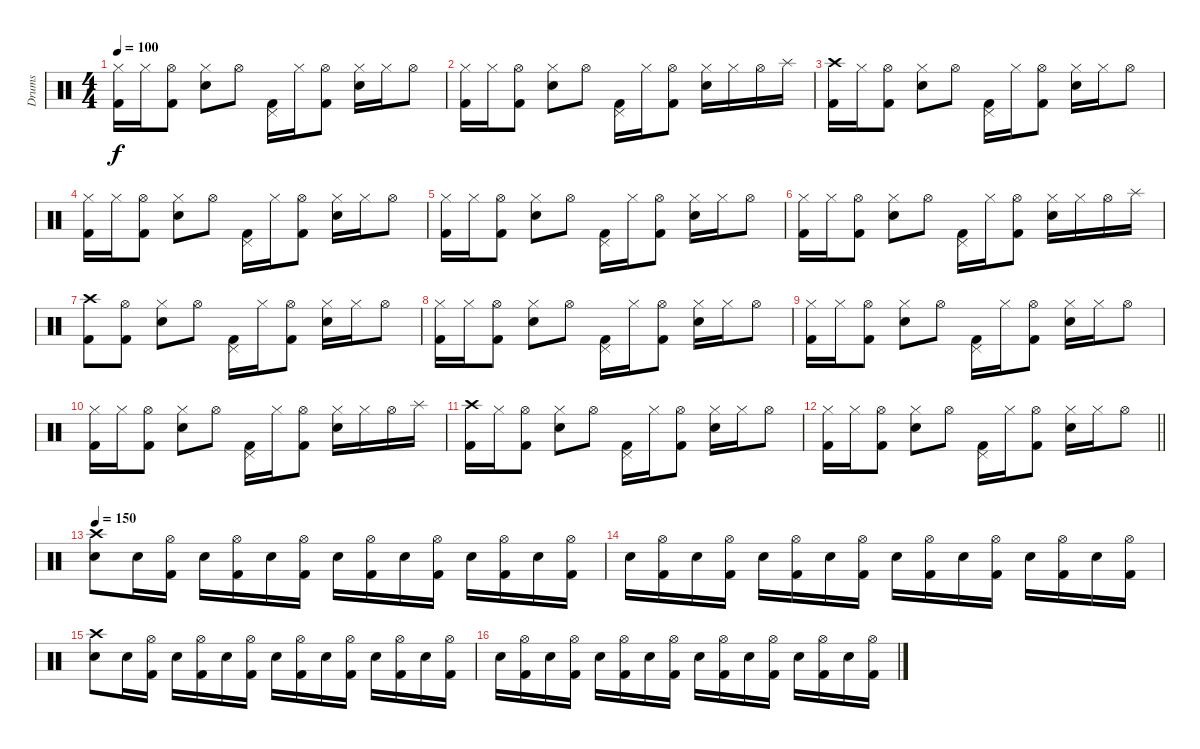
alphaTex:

\track ("Drums" "Drums") {instrument percussion}
\staff {score}
\articulation defaults
\ts (4 4)
\tempo 100
\clef neutral
\ks c
("Hi-Hat (closed)" "Kick (hit) 2").16{dy f} "Hi-Hat (closed)".16 ("Hi-Hat (open)" "Kick (hit) 2").8 ("Hi-Hat (closed)" "Electric Snare (hit)").8 "Hi-Hat (open)".8 ("Pedal Hi-Hat (hit)" "Kick (hit) 2").16 "Hi-Hat (closed)".16 ("Hi-Hat (open)" "Kick (hit) 2").8 ("Hi-Hat (closed)" "Electric Snare (hit)").16 "Hi-Hat (closed)".16 "Hi-Hat (open)".8 |
("Hi-Hat (closed)" "Kick (hit) 2").16 "Hi-Hat (closed)".16 ("Hi-Hat (open)" "Kick (hit) 2").8 ("Hi-Hat (closed)" "Electric Snare (hit)").8 "Hi-Hat (open)".8 ("Pedal Hi-Hat (hit)" "Kick (hit) 2").16 "Hi-Hat (closed)".16 ("Hi-Hat (open)" "Kick (hit) 2").8 ("Hi-Hat (closed)" "Electric Snare (hit)").16 "Hi-Hat (closed)".16 "Hi-Hat (open)".16 "Splash (hit)".16 |
("Crash high (hit)" "Kick (hit) 2").16 "Hi-Hat (closed)".16 ("Hi-Hat (open)" "Kick (hit) 2").8 ("Hi-Hat (closed)" "Electric Snare (hit)").8 "Hi-Hat (open)".8 ("Pedal Hi-Hat (hit)" "Kick (hit) 2").16 "Hi-Hat (closed)".16 ("Hi-Hat (open)" "Kick (hit) 2").8 ("Hi-Hat (closed)" "Electric Snare (hit)").16 "Hi-Hat (closed)".16 "Hi-Hat (open)".8 |
("Hi-Hat (closed)" "Kick (hit) 2").16 "Hi-Hat (closed)".16 ("Hi-Hat (open)" "Kick (hit) 2").8 ("Hi-Hat (closed)" "Electric Snare (hit)").8 "Hi-Hat (open)".8 ("Pedal Hi-Hat (hit)" "Kick (hit) 2").16 "Hi-Hat (closed)".16 ("Hi-Hat (open)" "Kick (hit) 2").8 ("Hi-Hat (closed)" "Electric Snare (hit)").16 "Hi-Hat (closed)".16 "Hi-Hat (open)".8 |
("Hi-Hat (closed)" "Kick (hit) 2").16 "Hi-Hat (closed)".16 ("Hi-Hat (open)" "Kick (hit) 2").8 ("Hi-Hat (closed)" "Electric Snare (hit)").8 "Hi-Hat (open)".8 ("Pedal Hi-Hat (hit)" "Kick (hit) 2").16 "Hi-Hat (closed)".16 ("Hi-Hat (open)" "Kick (hit) 2").8 ("Hi-Hat (closed)" "Electric Snare (hit)").16 "Hi-Hat (closed)".16 "Hi-Hat (open)".8 |
("Hi-Hat (closed)" "Kick (hit) 2").16 "Hi-Hat (closed)".16 ("Hi-Hat (open)" "Kick (hit) 2").8 ("Hi-Hat (closed)" "Electric Snare (hit)").8 "Hi-Hat (open)".8 ("Pedal Hi-Hat (hit)" "Kick (hit) 2").16 "Hi-Hat (closed)".16 ("Hi-Hat (open)" "Kick (hit) 2").8 ("Hi-Hat (closed)" "Electric Snare (hit)").16 "Hi-Hat (closed)".16 "Hi-Hat (open)".16 "Splash (hit)".16 |
("Crash high (hit)" "Kick (hit) 2").8 ("Hi-Hat (open)" "Kick (hit) 2").8 ("Hi-Hat (closed)" "Electric Snare (hit)").8 "Hi-Hat (open)".8 ("Pedal Hi-Hat (hit)" "Kick (hit) 2").16 "Hi-Hat (closed)".16 ("Hi-Hat (open)" "Kick (hit) 2").8 ("Hi-Hat (closed)" "Electric Snare (hit)").16 "Hi-Hat (closed)".16 "Hi-Hat (open)".8 |
("Hi-Hat (closed)" "Kick (hit) 2").16 "Hi-Hat (closed)".16 ("Hi-Hat (open)" "Kick (hit) 2").8 ("Hi-Hat (closed)" "Electric Snare (hit)").8 "Hi-Hat (open)".8 ("Pedal Hi-Hat (hit)" "Kick (hit) 2").16 "Hi-Hat (closed)".16 ("Hi-Hat (open)" "Kick (hit) 2").8 ("Hi-Hat (closed)" "Electric Snare (hit)").16 "Hi-Hat (closed)".16 "Hi-Hat (open)".8 |
("Hi-Hat (closed)" "Kick (hit) 2").16 "Hi-Hat (closed)".16 ("Hi-Hat (open)" "Kick (hit) 2").8 ("Hi-Hat (closed)" "Electric Snare (hit)").8 "Hi-Hat (open)".8 ("Pedal Hi-Hat (hit)" "Kick (hit) 2").16 "Hi-Hat (closed)".16 ("Hi-Hat (open)" "Kick (hit) 2").8 ("Hi-Hat (closed)" "Electric Snare (hit)").16 "Hi-Hat (closed)".16 "Hi-Hat (open)".8 |
("Hi-Hat (closed)" "Kick (hit) 2").16 "Hi-Hat (closed)".16 ("Hi-Hat (open)" "Kick (hit) 2").8 ("Hi-Hat (closed)" "Electric Snare (hit)").8 "Hi-Hat (open)".8 ("Pedal Hi-Hat (hit)" "Kick (hit) 2").16 "Hi-Hat (closed)".16 ("Hi-Hat (open)" "Kick (hit) 2").8 ("Hi-Hat (closed)" "Electric Snare (hit)").16 "Hi-Hat (closed)".16 "Hi-Hat (open)".16 "Splash (hit)".16 |
("Crash high (hit)" "Kick (hit) 2").16 "Hi-Hat (closed)".16 ("Hi-Hat (open)" "Kick (hit) 2").8 ("Hi-Hat (closed)" "Electric Snare (hit)").8 "Hi-Hat (open)".8 ("Pedal Hi-Hat (hit)" "Kick (hit) 2").16 "Hi-Hat (closed)".16 ("Hi-Hat (open)" "Kick (hit) 2").8 ("Hi-Hat (closed)" "Electric Snare (hit)").16 "Hi-Hat (closed)".16 "Hi-Hat (open)".8 |
\barLineRight lightlight
("Hi-Hat (closed)" "Kick (hit) 2").16 "Hi-Hat (closed)".16 ("Hi-Hat (open)" "Kick (hit) 2").8 ("Hi-Hat (closed)" "Electric Snare (hit)").8 "Hi-Hat (open)".8 ("Pedal Hi-Hat (hit)" "Kick (hit) 2").16 "Hi-Hat (closed)".16 ("Hi-Hat (open)" "Kick (hit) 2").8 ("Hi-Hat (closed)" "Electric Snare (hit)").16 "Hi-Hat (closed)".16 "Hi-Hat (open)".8 |
\tempo 150
("Crash high (hit)" "Electric Snare (hit)").8 "Electric Snare (hit)".16 ("Hi-Hat (open)" "Kick (hit) 2").16 "Electric Snare (hit)".16 ("Hi-Hat (open)" "Kick (hit) 2").16 "Electric Snare (hit)".16 ("Hi-Hat (open)" "Kick (hit) 2").16 "Electric Snare (hit)".16 ("Hi-Hat (open)" "Kick (hit) 2").16 "Electric Snare (hit)".16 ("Hi-Hat (open)" "Kick (hit) 2").16 "Electric Snare (hit)".16 ("Hi-Hat (open)" "Kick (hit) 2").16 "Electric Snare (hit)".16 ("Hi-Hat (open)" "Kick (hit) 2").16 |
"Electric Snare (hit)".16 ("Hi-Hat (open)" "Kick (hit) 2").16 "Electric Snare (hit)".16 ("Hi-Hat (open)" "Kick (hit) 2").16 "Electric Snare (hit)".16 ("Hi-Hat (open)" "Kick (hit) 2").16 "Electric Snare (hit)".16 ("Hi-Hat (open)" "Kick (hit) 2").16 "Electric Snare (hit)".16 ("Hi-Hat (open)" "Kick (hit) 2").16 "Electric Snare (hit)".16 ("Hi-Hat (open)" "Kick (hit) 2").16 "Electric Snare (hit)".16 ("Hi-Hat (open)" "Kick (hit) 2").16 "Electric Snare (hit)".16 ("Hi-Hat (open)" "Kick (hit) 2").16 |
("Crash high (hit)" "Electric Snare (hit)").8 "Electric Snare (hit)".16 ("Hi-Hat (open)" "Kick (hit) 2").16 "Electric Snare (hit)".16 ("Hi-Hat (open)" "Kick (hit) 2").16 "Electric Snare (hit)".16 ("Hi-Hat (open)" "Kick (hit) 2").16 "Electric Snare (hit)".16 ("Hi-Hat (open)" "Kick (hit) 2").16 "Electric Snare (hit)".16 ("Hi-Hat (open)" "Kick (hit) 2").16 "Electric Snare (hit)".16 ("Hi-Hat (open)" "Kick (hit) 2").16 "Electric Snare (hit)".16 ("Hi-Hat (open)" "Kick (hit) 2").16 |
"Electric Snare (hit)".16 ("Hi-Hat (open)" "Kick (hit) 2").16 "Electric Snare (hit)".16 ("Hi-Hat (open)" "Kick (hit) 2").16 "Electric Snare (hit)".16 ("Hi-Hat (open)" "Kick (hit) 2").16 "Electric Snare (hit)".16 ("Hi-Hat (open)" "Kick (hit) 2").16 "Electric Snare (hit)".16 ("Hi-Hat (open)" "Kick (hit) 2").16 "Electric Snare (hit)".16 ("Hi-Hat (open)" "Kick (hit) 2").16 "Electric Snare (hit)".16 ("Hi-Hat (open)" "Kick (hit) 2").16 "Electric Snare (hit)".16 ("Hi-Hat (open)" "Kick (hit) 2").16
